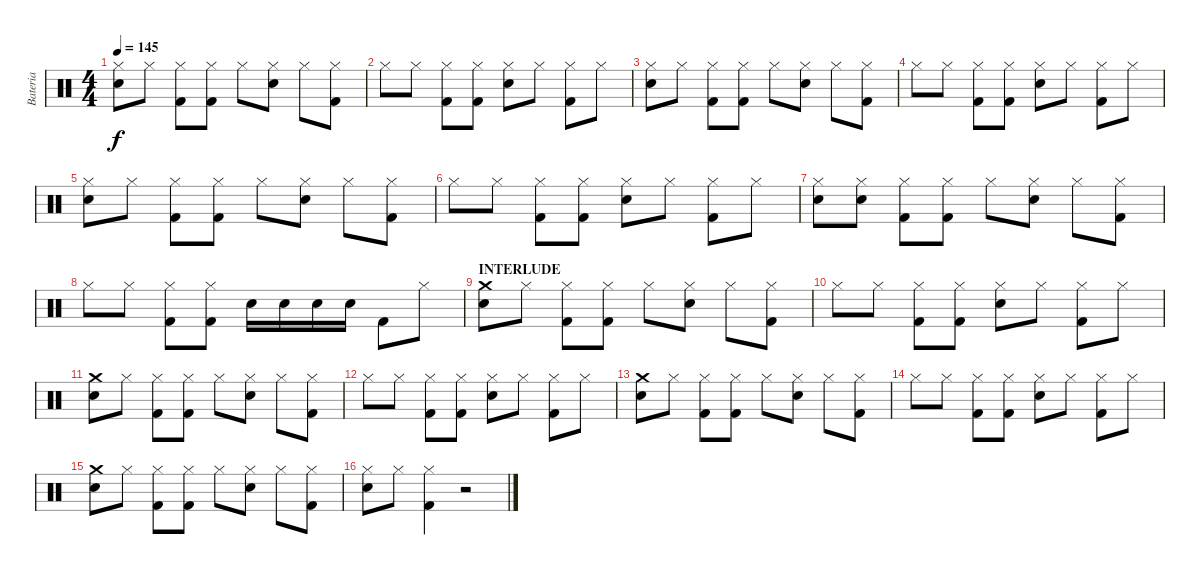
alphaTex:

\track ("Bateria" "Bateria") {instrument percussion}
\staff {score}
\articulation defaults
\ts (4 4)
\tempo 145
\clef neutral
\ks c
("Hi-Hat (closed)" "Snare (hit) 2").8{dy f} "Hi-Hat (closed)".8 ("Hi-Hat (closed)" "Kick (hit) 2").8 ("Hi-Hat (closed)" "Kick (hit) 2").8 "Hi-Hat (closed)".8 ("Hi-Hat (closed)" "Snare (hit) 2").8 "Hi-Hat (closed)".8 ("Hi-Hat (closed)" "Kick (hit) 2").8 |
"Hi-Hat (closed)".8 "Hi-Hat (closed)".8 ("Hi-Hat (closed)" "Kick (hit) 2").8 ("Hi-Hat (closed)" "Kick (hit) 2").8 ("Hi-Hat (closed)" "Snare (hit) 2").8 "Hi-Hat (closed)".8 ("Hi-Hat (closed)" "Kick (hit) 2").8 "Hi-Hat (closed)".8 |
("Hi-Hat (closed)" "Snare (hit) 2").8 "Hi-Hat (closed)".8 ("Hi-Hat (closed)" "Kick (hit) 2").8 ("Hi-Hat (closed)" "Kick (hit) 2").8 "Hi-Hat (closed)".8 ("Hi-Hat (closed)" "Snare (hit) 2").8 "Hi-Hat (closed)".8 ("Hi-Hat (closed)" "Kick (hit) 2").8 |
"Hi-Hat (closed)".8 "Hi-Hat (closed)".8 ("Hi-Hat (closed)" "Kick (hit) 2").8 ("Hi-Hat (closed)" "Kick (hit) 2").8 ("Hi-Hat (closed)" "Snare (hit) 2").8 "Hi-Hat (closed)".8 ("Hi-Hat (closed)" "Kick (hit) 2").8 "Hi-Hat (closed)".8 |
("Hi-Hat (closed)" "Snare (hit) 2").8 "Hi-Hat (closed)".8 ("Hi-Hat (closed)" "Kick (hit) 2").8 ("Hi-Hat (closed)" "Kick (hit) 2").8 "Hi-Hat (closed)".8 ("Hi-Hat (closed)" "Snare (hit) 2").8 "Hi-Hat (closed)".8 ("Hi-Hat (closed)" "Kick (hit) 2").8 |
"Hi-Hat (closed)".8 "Hi-Hat (closed)".8 ("Hi-Hat (closed)" "Kick (hit) 2").8 ("Hi-Hat (closed)" "Kick (hit) 2").8 ("Hi-Hat (closed)" "Snare (hit) 2").8 "Hi-Hat (closed)".8 ("Hi-Hat (closed)" "Kick (hit) 2").8 "Hi-Hat (closed)".8 |
("Hi-Hat (closed)" "Snare (hit) 2").8 ("Snare (hit)" "Hi-Hat (closed)").8 ("Hi-Hat (closed)" "Kick (hit) 2").8 ("Hi-Hat (closed)" "Kick (hit) 2").8 "Hi-Hat (closed)".8 ("Hi-Hat (closed)" "Snare (hit) 2").8 "Hi-Hat (closed)".8 ("Hi-Hat (closed)" "Kick (hit) 2").8 |
"Hi-Hat (closed)".8 "Hi-Hat (closed)".8 ("Hi-Hat (closed)" "Kick (hit) 2").8 ("Hi-Hat (closed)" "Kick (hit) 2").8 "Snare (hit) 2".16 "Snare (hit) 2".16 "Snare (hit) 2".16 "Snare (hit) 2".16 "Kick (hit) 2".8 "Hi-Hat (closed)".8 |
\section ("" "INTERLUDE")
("Crash medium (hit)" "Snare (hit) 2").8 "Hi-Hat (closed)".8 ("Hi-Hat (closed)" "Kick (hit) 2").8 ("Hi-Hat (closed)" "Kick (hit) 2").8 "Hi-Hat (closed)".8 ("Hi-Hat (closed)" "Snare (hit) 2").8 "Hi-Hat (closed)".8 ("Hi-Hat (closed)" "Kick (hit) 2").8 |
"Hi-Hat (closed)".8 "Hi-Hat (closed)".8 ("Hi-Hat (closed)" "Kick (hit) 2").8 ("Hi-Hat (closed)" "Kick (hit) 2").8 ("Hi-Hat (closed)" "Snare (hit) 2").8 "Hi-Hat (closed)".8 ("Hi-Hat (closed)" "Kick (hit) 2").8 "Hi-Hat (closed)".8 |
("Crash medium (hit)" "Snare (hit) 2").8 "Hi-Hat (closed)".8 ("Hi-Hat (closed)" "Kick (hit) 2").8 ("Hi-Hat (closed)" "Kick (hit) 2").8 "Hi-Hat (closed)".8 ("Hi-Hat (closed)" "Snare (hit) 2").8 "Hi-Hat (closed)".8 ("Hi-Hat (closed)" "Kick (hit) 2").8 |
"Hi-Hat (closed)".8 "Hi-Hat (closed)".8 ("Hi-Hat (closed)" "Kick (hit) 2").8 ("Hi-Hat (closed)" "Kick (hit) 2").8 ("Hi-Hat (closed)" "Snare (hit) 2").8 "Hi-Hat (closed)".8 ("Hi-Hat (closed)" "Kick (hit) 2").8 "Hi-Hat (closed)".8 |
("Crash medium (hit)" "Snare (hit) 2").8 "Hi-Hat (closed)".8 ("Hi-Hat (closed)" "Kick (hit) 2").8 ("Hi-Hat (closed)" "Kick (hit) 2").8 "Hi-Hat (closed)".8 ("Hi-Hat (closed)" "Snare (hit) 2").8 "Hi-Hat (closed)".8 ("Hi-Hat (closed)" "Kick (hit) 2").8 |
"Hi-Hat (closed)".8 "Hi-Hat (closed)".8 ("Hi-Hat (closed)" "Kick (hit) 2").8 ("Hi-Hat (closed)" "Kick (hit) 2").8 ("Hi-Hat (closed)" "Snare (hit) 2").8 "Hi-Hat (closed)".8 ("Hi-Hat (closed)" "Kick (hit) 2").8 "Hi-Hat (closed)".8 |
("Crash medium (hit)" "Snare (hit) 2").8 "Hi-Hat (closed)".8 ("Hi-Hat (closed)" "Kick (hit) 2").8 ("Hi-Hat (closed)" "Kick (hit) 2").8 "Hi-Hat (closed)".8 ("Hi-Hat (closed)" "Snare (hit) 2").8 "Hi-Hat (closed)".8 ("Hi-Hat (closed)" "Kick (hit) 2").8 |
("Hi-Hat (closed)" "Snare (hit) 2").8 "Hi-Hat (closed)".8 ("Hi-Hat (closed)" "Kick (hit) 2").4 r.2
